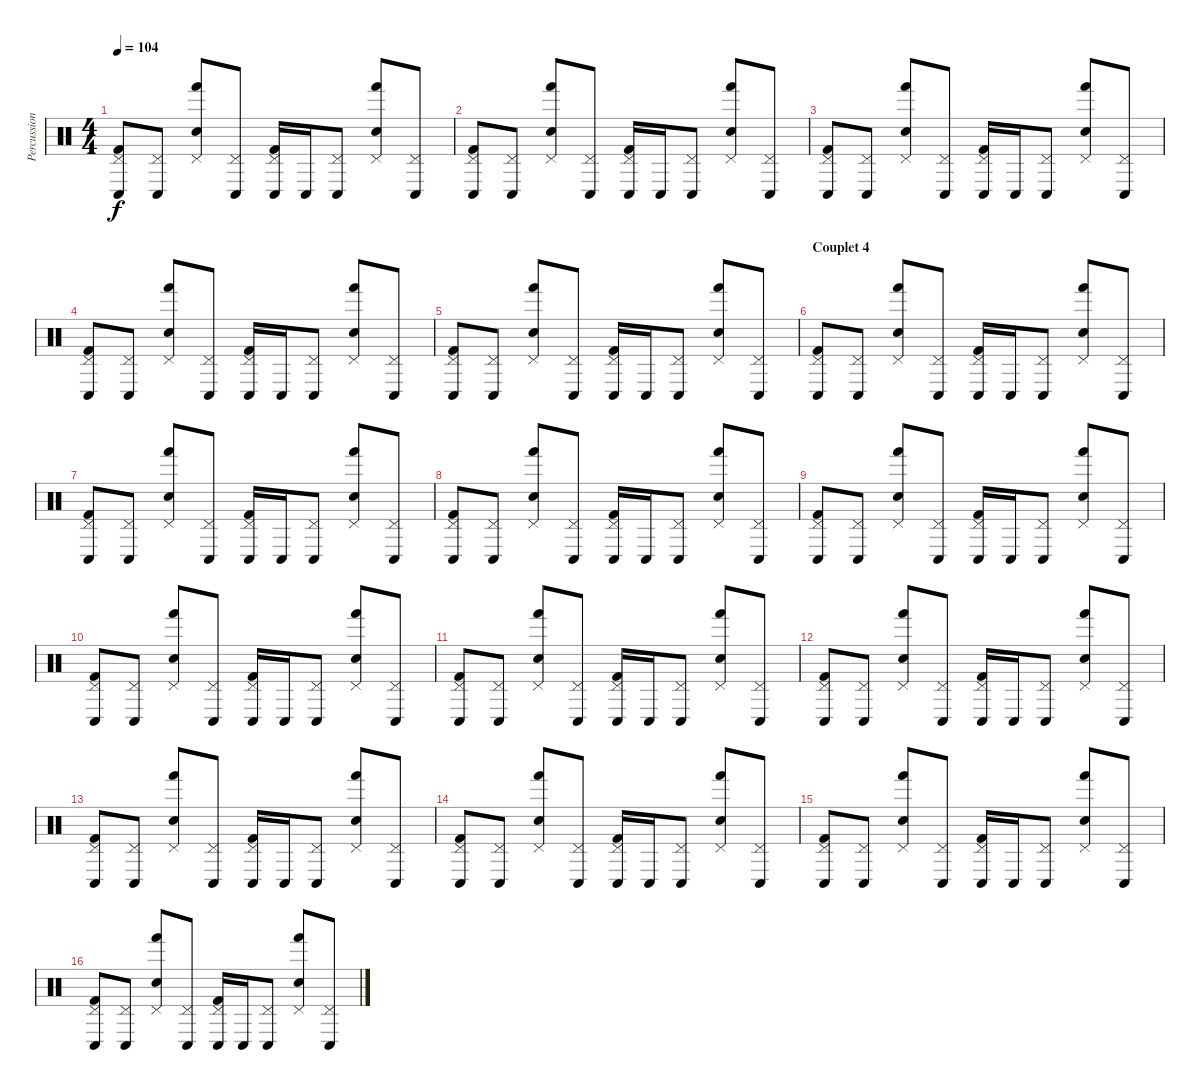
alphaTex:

\track ("Percussions" "Percussion") {instrument percussion}
\staff {score}
\articulation defaults
\ts (4 4)
\tempo 104
\clef neutral
\ks c
("Pedal Hi-Hat (hit)" "Conga low (hit)" "Kick (hit) 2").8{dy f} ("Pedal Hi-Hat (hit)" "Conga low (hit)").8 ("Pedal Hi-Hat (hit)" "Snare (hit) 2" "Hand (hit)").8 ("Pedal Hi-Hat (hit)" "Conga low (hit)").8 ("Pedal Hi-Hat (hit)" "Conga low (hit)" "Kick (hit) 2").16 "Conga low (hit)".16 ("Pedal Hi-Hat (hit)" "Conga low (hit)").8 ("Pedal Hi-Hat (hit)" "Snare (hit) 2" "Hand (hit)").8 ("Pedal Hi-Hat (hit)" "Conga low (hit)").8 |
("Pedal Hi-Hat (hit)" "Conga low (hit)" "Kick (hit) 2").8 ("Pedal Hi-Hat (hit)" "Conga low (hit)").8 ("Pedal Hi-Hat (hit)" "Snare (hit) 2" "Hand (hit)").8 ("Pedal Hi-Hat (hit)" "Conga low (hit)").8 ("Pedal Hi-Hat (hit)" "Conga low (hit)" "Kick (hit) 2").16 "Conga low (hit)".16 ("Pedal Hi-Hat (hit)" "Conga low (hit)").8 ("Pedal Hi-Hat (hit)" "Snare (hit) 2" "Hand (hit)").8 ("Pedal Hi-Hat (hit)" "Conga low (hit)").8 |
("Pedal Hi-Hat (hit)" "Conga low (hit)" "Kick (hit) 2").8 ("Pedal Hi-Hat (hit)" "Conga low (hit)").8 ("Pedal Hi-Hat (hit)" "Snare (hit) 2" "Hand (hit)").8 ("Pedal Hi-Hat (hit)" "Conga low (hit)").8 ("Pedal Hi-Hat (hit)" "Conga low (hit)" "Kick (hit) 2").16 "Conga low (hit)".16 ("Pedal Hi-Hat (hit)" "Conga low (hit)").8 ("Pedal Hi-Hat (hit)" "Snare (hit) 2" "Hand (hit)").8 ("Pedal Hi-Hat (hit)" "Conga low (hit)").8 |
("Pedal Hi-Hat (hit)" "Conga low (hit)" "Kick (hit) 2").8 ("Pedal Hi-Hat (hit)" "Conga low (hit)").8 ("Pedal Hi-Hat (hit)" "Snare (hit) 2" "Hand (hit)").8 ("Pedal Hi-Hat (hit)" "Conga low (hit)").8 ("Pedal Hi-Hat (hit)" "Conga low (hit)" "Kick (hit) 2").16 "Conga low (hit)".16 ("Pedal Hi-Hat (hit)" "Conga low (hit)").8 ("Pedal Hi-Hat (hit)" "Snare (hit) 2" "Hand (hit)").8 ("Pedal Hi-Hat (hit)" "Conga low (hit)").8 |
("Pedal Hi-Hat (hit)" "Conga low (hit)" "Kick (hit) 2").8 ("Pedal Hi-Hat (hit)" "Conga low (hit)").8 ("Pedal Hi-Hat (hit)" "Snare (hit) 2" "Hand (hit)").8 ("Pedal Hi-Hat (hit)" "Conga low (hit)").8 ("Pedal Hi-Hat (hit)" "Conga low (hit)" "Kick (hit) 2").16 "Conga low (hit)".16 ("Pedal Hi-Hat (hit)" "Conga low (hit)").8 ("Pedal Hi-Hat (hit)" "Snare (hit) 2" "Hand (hit)").8 ("Pedal Hi-Hat (hit)" "Conga low (hit)").8 |
\section ("" "Couplet 4")
("Pedal Hi-Hat (hit)" "Conga low (hit)" "Kick (hit) 2").8 ("Pedal Hi-Hat (hit)" "Conga low (hit)").8 ("Pedal Hi-Hat (hit)" "Snare (hit) 2" "Hand (hit)").8 ("Pedal Hi-Hat (hit)" "Conga low (hit)").8 ("Pedal Hi-Hat (hit)" "Conga low (hit)" "Kick (hit) 2").16 "Conga low (hit)".16 ("Pedal Hi-Hat (hit)" "Conga low (hit)").8 ("Pedal Hi-Hat (hit)" "Snare (hit) 2" "Hand (hit)").8 ("Pedal Hi-Hat (hit)" "Conga low (hit)").8 |
\section ("" "")
("Pedal Hi-Hat (hit)" "Conga low (hit)" "Kick (hit) 2").8 ("Pedal Hi-Hat (hit)" "Conga low (hit)").8 ("Pedal Hi-Hat (hit)" "Snare (hit) 2" "Hand (hit)").8 ("Pedal Hi-Hat (hit)" "Conga low (hit)").8 ("Pedal Hi-Hat (hit)" "Conga low (hit)" "Kick (hit) 2").16 "Conga low (hit)".16 ("Pedal Hi-Hat (hit)" "Conga low (hit)").8 ("Pedal Hi-Hat (hit)" "Snare (hit) 2" "Hand (hit)").8 ("Pedal Hi-Hat (hit)" "Conga low (hit)").8 |
("Pedal Hi-Hat (hit)" "Conga low (hit)" "Kick (hit) 2").8 ("Pedal Hi-Hat (hit)" "Conga low (hit)").8 ("Pedal Hi-Hat (hit)" "Snare (hit) 2" "Hand (hit)").8 ("Pedal Hi-Hat (hit)" "Conga low (hit)").8 ("Pedal Hi-Hat (hit)" "Conga low (hit)" "Kick (hit) 2").16 "Conga low (hit)".16 ("Pedal Hi-Hat (hit)" "Conga low (hit)").8 ("Pedal Hi-Hat (hit)" "Snare (hit) 2" "Hand (hit)").8 ("Pedal Hi-Hat (hit)" "Conga low (hit)").8 |
("Pedal Hi-Hat (hit)" "Conga low (hit)" "Kick (hit) 2").8 ("Pedal Hi-Hat (hit)" "Conga low (hit)").8 ("Pedal Hi-Hat (hit)" "Snare (hit) 2" "Hand (hit)").8 ("Pedal Hi-Hat (hit)" "Conga low (hit)").8 ("Pedal Hi-Hat (hit)" "Conga low (hit)" "Kick (hit) 2").16 "Conga low (hit)".16 ("Pedal Hi-Hat (hit)" "Conga low (hit)").8 ("Pedal Hi-Hat (hit)" "Snare (hit) 2" "Hand (hit)").8 ("Pedal Hi-Hat (hit)" "Conga low (hit)").8 |
("Pedal Hi-Hat (hit)" "Conga low (hit)" "Kick (hit) 2").8 ("Pedal Hi-Hat (hit)" "Conga low (hit)").8 ("Pedal Hi-Hat (hit)" "Snare (hit) 2" "Hand (hit)").8 ("Pedal Hi-Hat (hit)" "Conga low (hit)").8 ("Pedal Hi-Hat (hit)" "Conga low (hit)" "Kick (hit) 2").16 "Conga low (hit)".16 ("Pedal Hi-Hat (hit)" "Conga low (hit)").8 ("Pedal Hi-Hat (hit)" "Snare (hit) 2" "Hand (hit)").8 ("Pedal Hi-Hat (hit)" "Conga low (hit)").8 |
("Pedal Hi-Hat (hit)" "Conga low (hit)" "Kick (hit) 2").8 ("Pedal Hi-Hat (hit)" "Conga low (hit)").8 ("Pedal Hi-Hat (hit)" "Snare (hit) 2" "Hand (hit)").8 ("Pedal Hi-Hat (hit)" "Conga low (hit)").8 ("Pedal Hi-Hat (hit)" "Conga low (hit)" "Kick (hit) 2").16 "Conga low (hit)".16 ("Pedal Hi-Hat (hit)" "Conga low (hit)").8 ("Pedal Hi-Hat (hit)" "Snare (hit) 2" "Hand (hit)").8 ("Pedal Hi-Hat (hit)" "Conga low (hit)").8 |
("Pedal Hi-Hat (hit)" "Conga low (hit)" "Kick (hit) 2").8 ("Pedal Hi-Hat (hit)" "Conga low (hit)").8 ("Pedal Hi-Hat (hit)" "Snare (hit) 2" "Hand (hit)").8 ("Pedal Hi-Hat (hit)" "Conga low (hit)").8 ("Pedal Hi-Hat (hit)" "Conga low (hit)" "Kick (hit) 2").16 "Conga low (hit)".16 ("Pedal Hi-Hat (hit)" "Conga low (hit)").8 ("Pedal Hi-Hat (hit)" "Snare (hit) 2" "Hand (hit)").8 ("Pedal Hi-Hat (hit)" "Conga low (hit)").8 |
("Pedal Hi-Hat (hit)" "Conga low (hit)" "Kick (hit) 2").8 ("Pedal Hi-Hat (hit)" "Conga low (hit)").8 ("Pedal Hi-Hat (hit)" "Snare (hit) 2" "Hand (hit)").8 ("Pedal Hi-Hat (hit)" "Conga low (hit)").8 ("Pedal Hi-Hat (hit)" "Conga low (hit)" "Kick (hit) 2").16 "Conga low (hit)".16 ("Pedal Hi-Hat (hit)" "Conga low (hit)").8 ("Pedal Hi-Hat (hit)" "Snare (hit) 2" "Hand (hit)").8 ("Pedal Hi-Hat (hit)" "Conga low (hit)").8 |
("Pedal Hi-Hat (hit)" "Conga low (hit)" "Kick (hit) 2").8 ("Pedal Hi-Hat (hit)" "Conga low (hit)").8 ("Pedal Hi-Hat (hit)" "Snare (hit) 2" "Hand (hit)").8 ("Pedal Hi-Hat (hit)" "Conga low (hit)").8 ("Pedal Hi-Hat (hit)" "Conga low (hit)" "Kick (hit) 2").16 "Conga low (hit)".16 ("Pedal Hi-Hat (hit)" "Conga low (hit)").8 ("Pedal Hi-Hat (hit)" "Snare (hit) 2" "Hand (hit)").8 ("Pedal Hi-Hat (hit)" "Conga low (hit)").8 |
("Pedal Hi-Hat (hit)" "Conga low (hit)" "Kick (hit) 2").8 ("Pedal Hi-Hat (hit)" "Conga low (hit)").8 ("Pedal Hi-Hat (hit)" "Snare (hit) 2" "Hand (hit)").8 ("Pedal Hi-Hat (hit)" "Conga low (hit)").8 ("Pedal Hi-Hat (hit)" "Conga low (hit)" "Kick (hit) 2").16 "Conga low (hit)".16 ("Pedal Hi-Hat (hit)" "Conga low (hit)").8 ("Pedal Hi-Hat (hit)" "Snare (hit) 2" "Hand (hit)").8 ("Pedal Hi-Hat (hit)" "Conga low (hit)").8 |
("Pedal Hi-Hat (hit)" "Conga low (hit)" "Kick (hit) 2").8 ("Pedal Hi-Hat (hit)" "Conga low (hit)").8 ("Pedal Hi-Hat (hit)" "Snare (hit) 2" "Hand (hit)").8 ("Pedal Hi-Hat (hit)" "Conga low (hit)").8 ("Pedal Hi-Hat (hit)" "Conga low (hit)" "Kick (hit) 2").16 "Conga low (hit)".16 ("Pedal Hi-Hat (hit)" "Conga low (hit)").8 ("Pedal Hi-Hat (hit)" "Snare (hit) 2" "Hand (hit)").8 ("Pedal Hi-Hat (hit)" "Conga low (hit)").8
